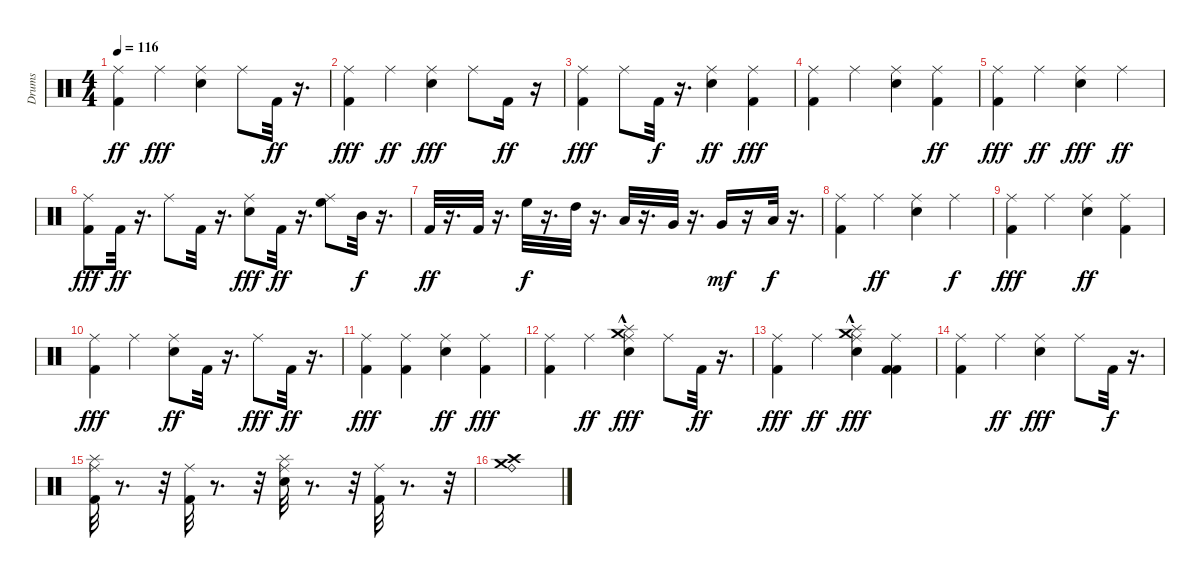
\track ("Drums" "Drums") {instrument percussion}
\staff {score}
\articulation defaults
\ts (4 4)
\tempo 116
\clef neutral
\ks c
("Kick (hit) 2" "Ride (middle)").4{dy ff} "Ride (middle)".4{dy fff} ("Snare (hit) 2" "Ride (middle)").4 "Ride (middle)".8 "Kick (hit) 2".32{dy ff} r.16{d} |
("Kick (hit) 2" "Ride (middle)").4{dy fff} "Ride (middle)".4{dy ff} ("Snare (hit) 2" "Ride (middle)").4{dy fff} "Ride (middle)".8 "Kick (hit) 2".16{dy ff} r.16 |
("Kick (hit) 2" "Ride (middle)").4{dy fff} "Ride (middle)".8 "Kick (hit) 2".32{dy f} r.16{d} ("Snare (hit) 2" "Ride (middle)").4{dy ff} ("Kick (hit) 2" "Ride (middle)").4{dy fff} |
("Kick (hit) 2" "Ride (middle)").4 "Ride (middle)".4 ("Snare (hit) 2" "Ride (middle)").4 ("Kick (hit) 2" "Ride (middle)").4{dy ff} |
("Kick (hit) 2" "Ride (middle)").4{dy fff} "Ride (middle)".4{dy ff} ("Snare (hit) 2" "Ride (middle)").4{dy fff} "Ride (middle)".4{dy ff} |
("Kick (hit) 2" "Ride (middle)").8{dy fff} "Kick (hit) 2".32{dy ff} r.16{d} "Ride (middle)".8 "Kick (hit) 2".32 r.16{d} ("Snare (hit) 2" "Ride (middle)").8{dy fff} "Kick (hit) 2".32{dy ff} r.16{d} ("High Floor Tom (hit)" "Ride (middle)").8 "Mid Tom (hit)".32{dy f} r.16{d} |
"Kick (hit) 2".32{dy ff} r.16{d} "Kick (hit) 2".32 r.16{d} "High Floor Tom (hit)".32{dy f} r.16{d} "High Tom (hit)".32 r.16{d} "Low Tom (hit)".32 r.16{d} "Very Low Tom (hit)".32 r.16{d} "Very Low Tom (hit)".16{dy mf} r.16 "Low Floor Tom (hit)".32{dy f} r.16{d} |
("Kick (hit) 2" "Ride (middle)").4 "Ride (middle)".4{dy ff} ("Snare (hit) 2" "Ride (middle)").4 "Ride (middle)".4{dy f} |
("Kick (hit) 2" "Ride (middle)").4{dy fff} "Ride (middle)".4 ("Snare (hit) 2" "Ride (middle)").4{dy ff} ("Kick (hit) 2" "Ride (middle)").4 |
("Kick (hit) 2" "Ride (middle)").4{dy fff} "Ride (middle)".4 ("Ride (middle)" "Snare (hit) 2").8{dy ff} "Kick (hit) 2".32 r.16{d} "Ride (middle)".8{dy fff} "Kick (hit) 2".32{dy ff} r.16{d} |
("Kick (hit) 2" "Ride (middle)").4{dy fff} ("Kick (hit) 2" "Ride (middle)").4 ("Snare (hit) 2" "Ride (middle)").4{dy ff} ("Kick (hit) 2" "Ride (middle)").4{dy fff} |
("Kick (hit) 2" "Ride (middle)").4 "Ride (middle)".4{dy ff} ("Crash medium (hit)" "Splash (hit)"{hac} "Snare (hit) 2" "Ride (middle)").4{dy fff} "Ride (middle)".8 "Kick (hit) 2".32{dy ff} r.16{d} |
("Kick (hit) 2" "Ride (middle)").4{dy fff} "Ride (middle)".4{dy ff} ("Splash (hit)"{hac} "Crash medium (hit)" "Snare (hit) 2" "Ride (middle)").4{dy fff} ("Kick (hit) 2" "Kick (hit) 2" "Ride (middle)").4 |
("Kick (hit) 2" "Ride (middle)").4 "Ride (middle)".4{dy ff} ("Snare (hit) 2" "Ride (middle)").4{dy fff} "Ride (middle)".8 "Kick (hit) 2".32{dy f} r.16{d} |
("Splash (hit)" "Kick (hit) 2" "Ride (middle)").32 r.8{d} r.32 ("Kick (hit) 2" "Ride (middle)").32 r.8{d} r.32 ("Splash (hit)" "Snare (hit) 2" "Ride (middle)").32 r.8{d} r.32 ("Kick (hit) 2" "Ride (middle)").32 r.8{d} r.32 |
("Ride (bell)" "Crash medium (hit)" "Crash high (hit)").1
